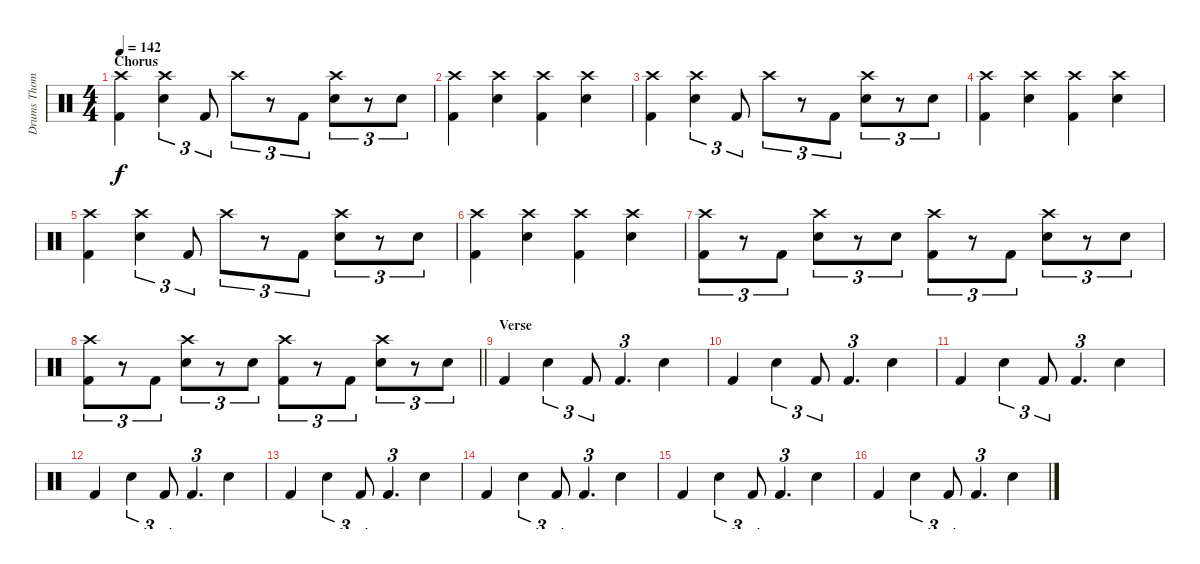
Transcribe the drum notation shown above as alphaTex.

\track ("Drums Thomas Goetz" "Drums Thom") {instrument percussion}
\staff {score}
\articulation defaults
\ts (4 4)
\section ("" "Chorus")
\tempo 142
\clef neutral
\ks c
("Crash high (hit)" "Kick (hit) 2").4{dy f} ("Crash high (hit)" "Snare (hit) 2").4{tu (3 2)} "Kick (hit) 2".8{tu (3 2)} "Crash high (hit)".8{tu (3 2)} r.8{tu (3 2)} "Kick (hit) 2".8{tu (3 2)} ("Crash high (hit)" "Snare (hit) 2").8{tu (3 2)} r.8{tu (3 2)} "Snare (hit) 2".8{tu (3 2)} |
("Crash high (hit)" "Kick (hit) 2").4 ("Crash high (hit)" "Snare (hit) 2").4 ("Crash high (hit)" "Kick (hit) 2").4 ("Crash high (hit)" "Snare (hit) 2").4 |
("Crash high (hit)" "Kick (hit) 2").4 ("Crash high (hit)" "Snare (hit) 2").4{tu (3 2)} "Kick (hit) 2".8{tu (3 2)} "Crash high (hit)".8{tu (3 2)} r.8{tu (3 2)} "Kick (hit) 2".8{tu (3 2)} ("Crash high (hit)" "Snare (hit) 2").8{tu (3 2)} r.8{tu (3 2)} "Snare (hit) 2".8{tu (3 2)} |
("Crash high (hit)" "Kick (hit) 2").4 ("Crash high (hit)" "Snare (hit) 2").4 ("Crash high (hit)" "Kick (hit) 2").4 ("Crash high (hit)" "Snare (hit) 2").4 |
("Crash high (hit)" "Kick (hit) 2").4 ("Crash high (hit)" "Snare (hit) 2").4{tu (3 2)} "Kick (hit) 2".8{tu (3 2)} "Crash high (hit)".8{tu (3 2)} r.8{tu (3 2)} "Kick (hit) 2".8{tu (3 2)} ("Crash high (hit)" "Snare (hit) 2").8{tu (3 2)} r.8{tu (3 2)} "Snare (hit) 2".8{tu (3 2)} |
("Crash high (hit)" "Kick (hit) 2").4 ("Crash high (hit)" "Snare (hit) 2").4 ("Crash high (hit)" "Kick (hit) 2").4 ("Crash high (hit)" "Snare (hit) 2").4 |
("Crash high (hit)" "Kick (hit) 2").8{tu (3 2)} r.8{tu (3 2)} "Kick (hit) 2".8{tu (3 2)} ("Crash high (hit)" "Snare (hit) 2").8{tu (3 2)} r.8{tu (3 2)} "Snare (hit) 2".8{tu (3 2)} ("Crash high (hit)" "Kick (hit) 2").8{tu (3 2)} r.8{tu (3 2)} "Kick (hit) 2".8{tu (3 2)} ("Crash high (hit)" "Snare (hit) 2").8{tu (3 2)} r.8{tu (3 2)} "Snare (hit) 2".8{tu (3 2)} |
\barLineRight lightlight
("Crash high (hit)" "Kick (hit) 2").8{tu (3 2)} r.8{tu (3 2)} "Kick (hit) 2".8{tu (3 2)} ("Crash high (hit)" "Snare (hit) 2").8{tu (3 2)} r.8{tu (3 2)} "Snare (hit) 2".8{tu (3 2)} ("Crash high (hit)" "Kick (hit) 2").8{tu (3 2)} r.8{tu (3 2)} "Kick (hit) 2".8{tu (3 2)} ("Crash high (hit)" "Snare (hit) 2").8{tu (3 2)} r.8{tu (3 2)} "Snare (hit) 2".8{tu (3 2)} |
\section ("" "Verse")
"Kick (hit) 2".4 "Snare (hit) 2".4{tu (3 2)} "Kick (hit) 2".8{tu (3 2)} "Kick (hit) 2".4{d tu (3 2)} "Snare (hit) 2".4 |
"Kick (hit) 2".4 "Snare (hit) 2".4{tu (3 2)} "Kick (hit) 2".8{tu (3 2)} "Kick (hit) 2".4{d tu (3 2)} "Snare (hit) 2".4 |
"Kick (hit) 2".4 "Snare (hit) 2".4{tu (3 2)} "Kick (hit) 2".8{tu (3 2)} "Kick (hit) 2".4{d tu (3 2)} "Snare (hit) 2".4 |
"Kick (hit) 2".4 "Snare (hit) 2".4{tu (3 2)} "Kick (hit) 2".8{tu (3 2)} "Kick (hit) 2".4{d tu (3 2)} "Snare (hit) 2".4 |
"Kick (hit) 2".4 "Snare (hit) 2".4{tu (3 2)} "Kick (hit) 2".8{tu (3 2)} "Kick (hit) 2".4{d tu (3 2)} "Snare (hit) 2".4 |
"Kick (hit) 2".4 "Snare (hit) 2".4{tu (3 2)} "Kick (hit) 2".8{tu (3 2)} "Kick (hit) 2".4{d tu (3 2)} "Snare (hit) 2".4 |
"Kick (hit) 2".4 "Snare (hit) 2".4{tu (3 2)} "Kick (hit) 2".8{tu (3 2)} "Kick (hit) 2".4{d tu (3 2)} "Snare (hit) 2".4 |
"Kick (hit) 2".4 "Snare (hit) 2".4{tu (3 2)} "Kick (hit) 2".8{tu (3 2)} "Kick (hit) 2".4{d tu (3 2)} "Snare (hit) 2".4
